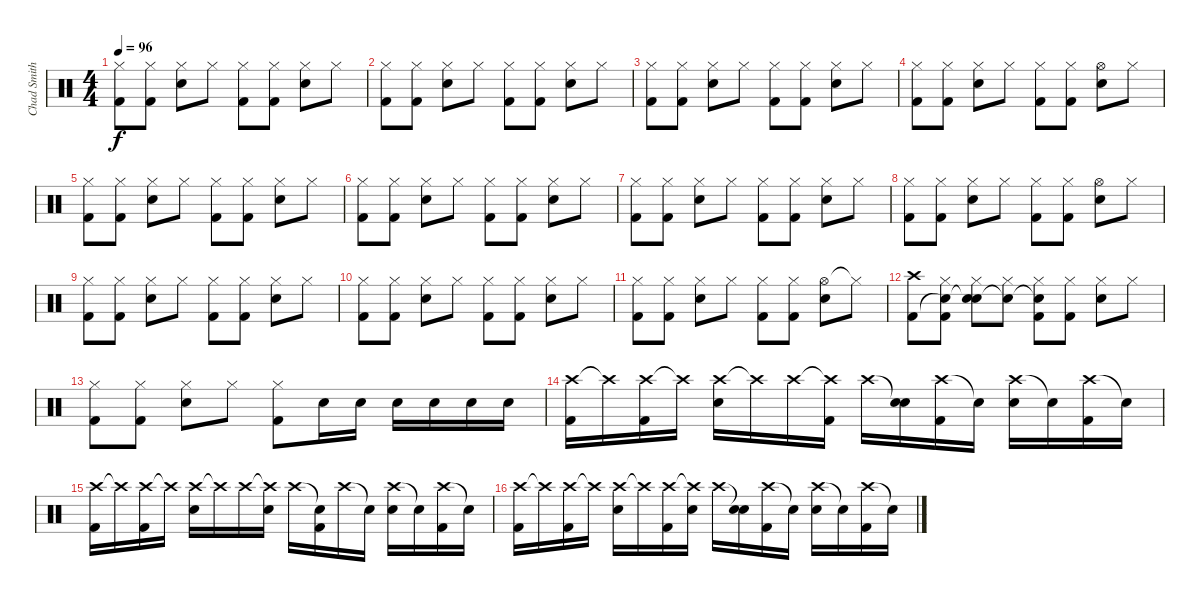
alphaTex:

\track ("Chad Smith" "Chad Smith") {mute instrument percussion}
\staff {score}
\articulation defaults
\ts (4 4)
\tempo 96
\clef neutral
\ks c
("Hi-Hat (closed)" "Kick (hit) 2").8{dy f} ("Hi-Hat (closed)" "Kick (hit) 2").8 ("Hi-Hat (closed)" "Snare (hit) 2").8 "Hi-Hat (closed)".8 ("Hi-Hat (closed)" "Kick (hit) 2").8 ("Hi-Hat (closed)" "Kick (hit) 2").8 ("Hi-Hat (closed)" "Snare (hit) 2").8 "Hi-Hat (closed)".8 |
("Hi-Hat (closed)" "Kick (hit) 2").8 ("Hi-Hat (closed)" "Kick (hit) 2").8 ("Hi-Hat (closed)" "Snare (hit) 2").8 "Hi-Hat (closed)".8 ("Hi-Hat (closed)" "Kick (hit) 2").8 ("Hi-Hat (closed)" "Kick (hit) 2").8 ("Hi-Hat (closed)" "Snare (hit) 2").8 "Hi-Hat (closed)".8 |
("Hi-Hat (closed)" "Kick (hit) 2").8 ("Hi-Hat (closed)" "Kick (hit) 2").8 ("Hi-Hat (closed)" "Snare (hit) 2").8 "Hi-Hat (closed)".8 ("Hi-Hat (closed)" "Kick (hit) 2").8 ("Hi-Hat (closed)" "Kick (hit) 2").8 ("Hi-Hat (closed)" "Snare (hit) 2").8 "Hi-Hat (closed)".8 |
("Hi-Hat (closed)" "Kick (hit) 2").8 ("Hi-Hat (closed)" "Kick (hit) 2").8 ("Hi-Hat (closed)" "Snare (hit) 2").8 "Hi-Hat (closed)".8 ("Hi-Hat (closed)" "Kick (hit) 2").8 ("Hi-Hat (closed)" "Kick (hit) 2").8 ("Hi-Hat (open)" "Snare (hit) 2").8 "Hi-Hat (closed)".8 |
("Hi-Hat (closed)" "Kick (hit) 2").8 ("Hi-Hat (closed)" "Kick (hit) 2").8 ("Hi-Hat (closed)" "Snare (hit) 2").8 "Hi-Hat (closed)".8 ("Hi-Hat (closed)" "Kick (hit) 2").8 ("Hi-Hat (closed)" "Kick (hit) 2").8 ("Hi-Hat (closed)" "Snare (hit) 2").8 "Hi-Hat (closed)".8 |
("Hi-Hat (closed)" "Kick (hit) 2").8 ("Hi-Hat (closed)" "Kick (hit) 2").8 ("Hi-Hat (closed)" "Snare (hit) 2").8 "Hi-Hat (closed)".8 ("Hi-Hat (closed)" "Kick (hit) 2").8 ("Hi-Hat (closed)" "Kick (hit) 2").8 ("Hi-Hat (closed)" "Snare (hit) 2").8 "Hi-Hat (closed)".8 |
("Hi-Hat (closed)" "Kick (hit) 2").8 ("Hi-Hat (closed)" "Kick (hit) 2").8 ("Hi-Hat (closed)" "Snare (hit) 2").8 "Hi-Hat (closed)".8 ("Hi-Hat (closed)" "Kick (hit) 2").8 ("Hi-Hat (closed)" "Kick (hit) 2").8 ("Hi-Hat (closed)" "Snare (hit) 2").8 "Hi-Hat (closed)".8 |
("Hi-Hat (closed)" "Kick (hit) 2").8 ("Hi-Hat (closed)" "Kick (hit) 2").8 ("Hi-Hat (closed)" "Snare (hit) 2").8 "Hi-Hat (closed)".8 ("Hi-Hat (closed)" "Kick (hit) 2").8 ("Hi-Hat (closed)" "Kick (hit) 2").8 ("Hi-Hat (open)" "Snare (hit) 2").8 "Hi-Hat (closed)".8 |
("Hi-Hat (closed)" "Kick (hit) 2").8 ("Hi-Hat (closed)" "Kick (hit) 2").8 ("Hi-Hat (closed)" "Snare (hit) 2").8 "Hi-Hat (closed)".8 ("Hi-Hat (closed)" "Kick (hit) 2").8 ("Hi-Hat (closed)" "Kick (hit) 2").8 ("Hi-Hat (closed)" "Snare (hit) 2").8 "Hi-Hat (closed)".8 |
("Hi-Hat (closed)" "Kick (hit) 2").8 ("Hi-Hat (closed)" "Kick (hit) 2").8 ("Hi-Hat (closed)" "Snare (hit) 2").8 "Hi-Hat (closed)".8 ("Hi-Hat (closed)" "Kick (hit) 2").8 ("Hi-Hat (closed)" "Kick (hit) 2").8 ("Hi-Hat (closed)" "Snare (hit) 2").8 "Hi-Hat (closed)".8 |
("Hi-Hat (closed)" "Kick (hit) 2").8 ("Hi-Hat (closed)" "Kick (hit) 2").8 ("Hi-Hat (closed)" "Snare (hit) 2").8 "Hi-Hat (closed)".8 ("Hi-Hat (closed)" "Kick (hit) 2").8 ("Hi-Hat (closed)" "Kick (hit) 2").8 ("Hi-Hat (open)" "Snare (hit) 2").8 "Hi-Hat (closed)"{t}.8 |
("Crash high (hit)" "Kick (hit) 2").8 ("Hi-Hat (closed)" "Snare (hit)"{t} "Kick (hit) 2").8 ("Hi-Hat (closed)" "Snare (hit)"{t} "Snare (hit) 2").8 ("Hi-Hat (closed)" "Snare (hit)"{t}).8 ("Hi-Hat (closed)" "Snare (hit)"{t} "Kick (hit) 2").8 ("Hi-Hat (closed)" "Kick (hit) 2").8 ("Hi-Hat (closed)" "Snare (hit) 2").8 "Hi-Hat (closed)".8 |
("Hi-Hat (closed)" "Kick (hit) 2").8 ("Hi-Hat (closed)" "Kick (hit) 2").8 ("Hi-Hat (closed)" "Snare (hit) 2").8 "Hi-Hat (closed)".8 ("Hi-Hat (closed)" "Kick (hit) 2").8 "Snare (hit) 2".16 "Snare (hit) 2".16 "Snare (hit) 2".16 "Snare (hit) 2".16 "Snare (hit) 2".16 "Snare (hit) 2".16 |
("Crash high (hit)" "Kick (hit) 2").16 "Crash high (hit)"{t}.16 ("Crash high (hit)" "Kick (hit) 2").16 "Crash high (hit)"{t}.16 ("Crash high (hit)" "Snare (hit) 2").16 "Crash high (hit)"{t}.16 "Crash high (hit)".16 ("Crash high (hit)"{t} "Kick (hit) 2").16 "Crash high (hit)".16 ("Snare (hit)"{t} "Snare (hit) 2").16 ("Crash high (hit)" "Kick (hit) 2").16 "Snare (hit)"{t}.16 ("Crash high (hit)" "Snare (hit) 2").16 "Snare (hit)"{t}.16 ("Crash high (hit)" "Kick (hit) 2").16 "Snare (hit)"{t}.16 |
("Crash high (hit)" "Kick (hit) 2").16 "Crash high (hit)"{t}.16 ("Crash high (hit)" "Kick (hit) 2").16 "Crash high (hit)"{t}.16 ("Crash high (hit)" "Snare (hit) 2").16 "Crash high (hit)"{t}.16 "Crash high (hit)".16 ("Crash high (hit)"{t} "Snare (hit) 2").16 "Crash high (hit)".16 ("Snare (hit)"{t} "Kick (hit) 2").16 "Crash high (hit)".16 "Snare (hit)"{t}.16 ("Crash high (hit)" "Snare (hit) 2").16 "Snare (hit)"{t}.16 ("Crash high (hit)" "Kick (hit) 2").16 "Snare (hit)"{t}.16 |
("Crash high (hit)" "Kick (hit) 2").16 "Crash high (hit)"{t}.16 ("Crash high (hit)" "Kick (hit) 2").16 "Crash high (hit)"{t}.16 ("Crash high (hit)" "Snare (hit) 2").16 "Crash high (hit)"{t}.16 ("Crash high (hit)" "Kick (hit) 2").16 ("Crash high (hit)"{t} "Snare (hit) 2").16 "Crash high (hit)".16 ("Snare (hit)"{t} "Snare (hit) 2").16 ("Crash high (hit)" "Kick (hit) 2").16 "Snare (hit)"{t}.16 ("Crash high (hit)" "Snare (hit) 2").16 "Snare (hit)"{t}.16 ("Crash high (hit)" "Kick (hit) 2").16 "Snare (hit)"{t}.16
